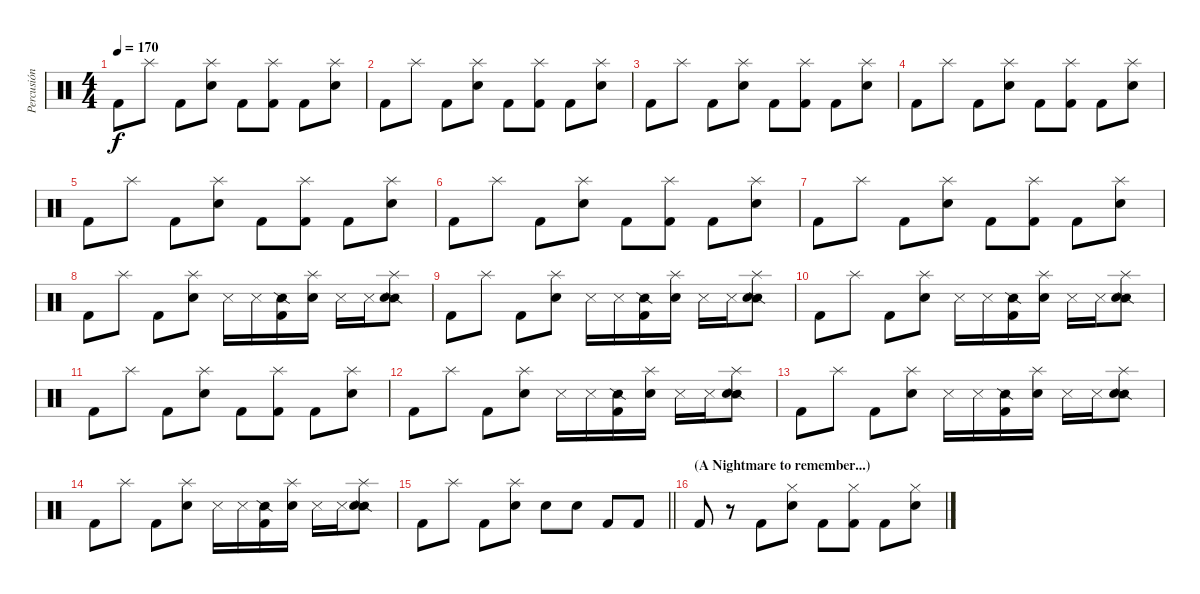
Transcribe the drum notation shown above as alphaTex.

\track ("Percusión" "Percusión") {instrument percussion}
\staff {score}
\articulation defaults
\ts (4 4)
\tempo 170
\clef neutral
\ks c "Kick (hit) 2".8{dy f} "Splash (hit)".8 "Kick (hit) 2".8
("Splash (hit)" "Electric Snare (hit)").8 "Kick (hit) 2".8 ("Splash (hit)" "Kick (hit) 2").8 "Kick (hit) 2".8 ("Splash (hit)" "Electric Snare (hit)").8 |
"Kick (hit) 2".8 "Splash (hit)".8 "Kick (hit) 2".8 ("Splash (hit)" "Electric Snare (hit)").8 "Kick (hit) 2".8 ("Splash (hit)" "Kick (hit) 2").8 "Kick (hit) 2".8 ("Splash (hit)" "Electric Snare (hit)").8 |
"Kick (hit) 2".8 "Splash (hit)".8 "Kick (hit) 2".8 ("Splash (hit)" "Electric Snare (hit)").8 "Kick (hit) 2".8 ("Splash (hit)" "Kick (hit) 2").8 "Kick (hit) 2".8 ("Splash (hit)" "Electric Snare (hit)").8 |
"Kick (hit) 2".8 "Splash (hit)".8 "Kick (hit) 2".8 ("Splash (hit)" "Electric Snare (hit)").8 "Kick (hit) 2".8 ("Splash (hit)" "Kick (hit) 2").8 "Kick (hit) 2".8 ("Splash (hit)" "Electric Snare (hit)").8 |
"Kick (hit) 2".8 "Splash (hit)".8 "Kick (hit) 2".8 ("Splash (hit)" "Electric Snare (hit)").8 "Kick (hit) 2".8 ("Splash (hit)" "Kick (hit) 2").8 "Kick (hit) 2".8 ("Splash (hit)" "Electric Snare (hit)").8 |
"Kick (hit) 2".8 "Splash (hit)".8 "Kick (hit) 2".8 ("Splash (hit)" "Electric Snare (hit)").8 "Kick (hit) 2".8 ("Splash (hit)" "Kick (hit) 2").8 "Kick (hit) 2".8 ("Splash (hit)" "Electric Snare (hit)").8 |
"Kick (hit) 2".8 "Splash (hit)".8 "Kick (hit) 2".8 ("Splash (hit)" "Electric Snare (hit)").8 "Kick (hit) 2".8 ("Splash (hit)" "Kick (hit) 2").8 "Kick (hit) 2".8 ("Splash (hit)" "Electric Snare (hit)").8 |
"Kick (hit) 2".8 "Splash (hit)".8 "Kick (hit) 2".8 ("Splash (hit)" "Electric Snare (hit)").8 "Metronome (hit)".16 "Metronome (hit)".16 ("Snare (side stick) 2" "Kick (hit) 2").16 ("Splash (hit)" "Metronome (bell)").16 "Metronome (hit)".16 "Metronome (hit)".16 ("Splash (hit)" "Snare (side stick) 2" "Electric Snare (hit)").8 |
"Kick (hit) 2".8 "Splash (hit)".8 "Kick (hit) 2".8 ("Splash (hit)" "Electric Snare (hit)").8 "Metronome (hit)".16 "Metronome (hit)".16 ("Snare (side stick) 2" "Kick (hit) 2").16 ("Splash (hit)" "Metronome (bell)").16 "Metronome (hit)".16 "Metronome (hit)".16 ("Splash (hit)" "Snare (side stick) 2" "Electric Snare (hit)").8 |
"Kick (hit) 2".8 "Splash (hit)".8 "Kick (hit) 2".8 ("Splash (hit)" "Electric Snare (hit)").8 "Metronome (hit)".16 "Metronome (hit)".16 ("Snare (side stick) 2" "Kick (hit) 2").16 ("Splash (hit)" "Metronome (bell)").16 "Metronome (hit)".16 "Metronome (hit)".16 ("Splash (hit)" "Snare (side stick) 2" "Electric Snare (hit)").8 |
"Kick (hit) 2".8 "Splash (hit)".8 "Kick (hit) 2".8 ("Splash (hit)" "Electric Snare (hit)").8 "Kick (hit) 2".8 ("Splash (hit)" "Kick (hit) 2").8 "Kick (hit) 2".8 ("Splash (hit)" "Electric Snare (hit)").8 |
"Kick (hit) 2".8 "Splash (hit)".8 "Kick (hit) 2".8 ("Splash (hit)" "Electric Snare (hit)").8 "Metronome (hit)".16 "Metronome (hit)".16 ("Snare (side stick) 2" "Kick (hit) 2").16 ("Splash (hit)" "Metronome (bell)").16 "Metronome (hit)".16 "Metronome (hit)".16 ("Splash (hit)" "Snare (side stick) 2" "Electric Snare (hit)").8 |
"Kick (hit) 2".8 "Splash (hit)".8 "Kick (hit) 2".8 ("Splash (hit)" "Electric Snare (hit)").8 "Metronome (hit)".16 "Metronome (hit)".16 ("Snare (side stick) 2" "Kick (hit) 2").16 ("Splash (hit)" "Metronome (bell)").16 "Metronome (hit)".16 "Metronome (hit)".16 ("Splash (hit)" "Snare (side stick) 2" "Electric Snare (hit)").8 |
"Kick (hit) 2".8 "Splash (hit)".8 "Kick (hit) 2".8 ("Splash (hit)" "Electric Snare (hit)").8 "Metronome (hit)".16 "Metronome (hit)".16 ("Snare (side stick) 2" "Kick (hit) 2").16 ("Splash (hit)" "Metronome (bell)").16 "Metronome (hit)".16 "Metronome (hit)".16 ("Splash (hit)" "Snare (side stick) 2" "Electric Snare (hit)").8 |
\barLineRight lightlight "Kick (hit) 2".8 "Splash (hit)".8 "Kick (hit) 2".8
("Splash (hit)" "Electric Snare (hit)").8 "Electric Snare (hit)".8 "Snare (hit) 2".8 "Kick (hit) 2".8 "Kick (hit) 2".8 |
\section ("" "(A Nightmare to remember...)")
"Kick (hit) 2".8 r.8 "Kick (hit) 2".8 ("Hi-Hat (closed)" "Electric Snare (hit)").8 "Kick (hit) 2".8 ("Hi-Hat (closed)" "Kick (hit) 2").8 "Kick (hit) 2".8 ("Hi-Hat (closed)" "Electric Snare (hit)").8
